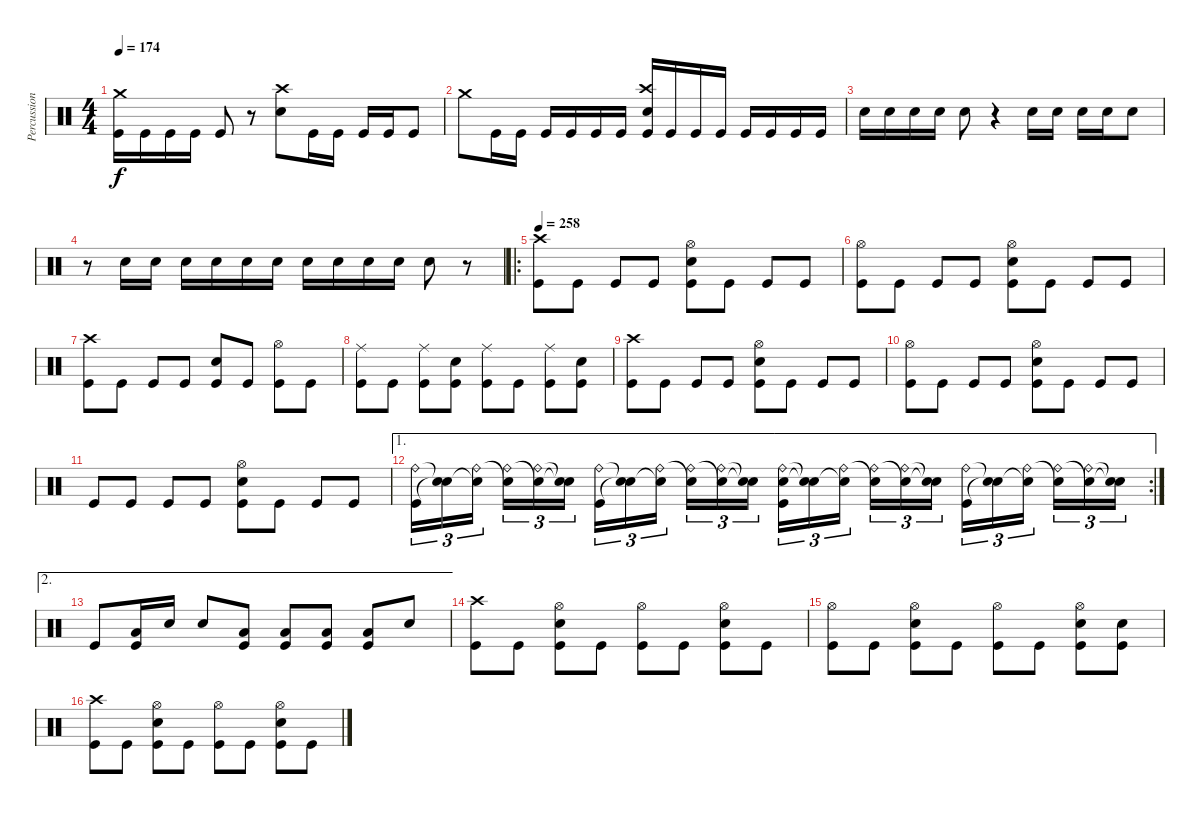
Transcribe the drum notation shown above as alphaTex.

\track ("Percussion" "Percussion") {instrument percussion}
\staff {score}
\articulation defaults
\ts (4 4)
\tempo 174
\clef neutral
\ks c
("Crash medium (hit)" "Kick (hit)").16{dy f} "Kick (hit)".16 "Kick (hit)".16 "Kick (hit)".16 "Kick (hit)".8 r.8 ("Crash high (hit)" "Snare (hit) 2").8 "Kick (hit)".16 "Kick (hit)".16 "Kick (hit)".16 "Kick (hit)".16 "Kick (hit)".8 |
"Crash medium (hit)".8 "Kick (hit)".16 "Kick (hit)".16 "Kick (hit)".16 "Kick (hit)".16 "Kick (hit)".16 "Kick (hit)".16 ("Crash high (hit)" "Snare (hit) 2" "Kick (hit)").16 "Kick (hit)".16 "Kick (hit)".16 "Kick (hit)".16 "Kick (hit)".16 "Kick (hit)".16 "Kick (hit)".16 "Kick (hit)".16 |
"Snare (hit) 2".16 "Snare (hit) 2".16 "Snare (hit) 2".16 "Snare (hit) 2".16 "Snare (hit) 2".8 r.4 "Snare (hit) 2".16 "Snare (hit) 2".16 "Snare (hit) 2".16 "Snare (hit) 2".16 "Snare (hit) 2".8 |
r.8 "Snare (hit) 2".16 "Snare (hit) 2".16 "Snare (hit) 2".16 "Snare (hit) 2".16 "Snare (hit) 2".16 "Snare (hit) 2".16 "Snare (hit) 2".16 "Snare (hit) 2".16 "Snare (hit) 2".16 "Snare (hit) 2".16 "Snare (hit) 2".8 r.8 |
\ro
\tempo 258
("Crash high (hit)" "Kick (hit)").8 "Kick (hit)".8 "Kick (hit)".8 "Kick (hit)".8 ("Snare (hit) 2" "Hi-Hat (open)" "Kick (hit)").8 "Kick (hit)".8 "Kick (hit)".8 "Kick (hit)".8 |
("Hi-Hat (open)" "Kick (hit)").8 "Kick (hit)".8 "Kick (hit)".8 "Kick (hit)".8 ("Snare (hit) 2" "Hi-Hat (open)" "Kick (hit)").8 "Kick (hit)".8 "Kick (hit)".8 "Kick (hit)".8 |
("Crash high (hit)" "Kick (hit)").8 "Kick (hit)".8 "Kick (hit)".8 "Kick (hit)".8 ("Snare (hit) 2" "Kick (hit)").8 "Kick (hit)".8 ("Hi-Hat (open)" "Kick (hit)").8 "Kick (hit)".8 |
("Ride (middle)" "Kick (hit)").8 "Kick (hit)".8 ("Ride (middle)" "Kick (hit)").8 ("Snare (hit) 2" "Kick (hit)").8 ("Ride (middle)" "Kick (hit)").8 "Kick (hit)".8 ("Ride (middle)" "Kick (hit)").8 ("Snare (hit) 2" "Kick (hit)").8 |
("Crash high (hit)" "Kick (hit)").8 "Kick (hit)".8 "Kick (hit)".8 "Kick (hit)".8 ("Snare (hit) 2" "Hi-Hat (open)" "Kick (hit)").8 "Kick (hit)".8 "Kick (hit)".8 "Kick (hit)".8 |
("Hi-Hat (open)" "Kick (hit)").8 "Kick (hit)".8 "Kick (hit)".8 "Kick (hit)".8 ("Snare (hit) 2" "Hi-Hat (open)" "Kick (hit)").8 "Kick (hit)".8 "Kick (hit)".8 "Kick (hit)".8 |
"Kick (hit)".8 "Kick (hit)".8 "Kick (hit)".8 "Kick (hit)".8 ("Snare (hit) 2" "Hi-Hat (open)" "Kick (hit)").8 "Kick (hit)".8 "Kick (hit)".8 "Kick (hit)".8 |
\ae 1
\rc 2
("Ride (bell)" "Kick (hit)").16{tu (3 2)} ("Snare (hit)"{t} "Snare (hit)"{t}).16{tu (3 2)} ("Ride (bell)" "Snare (hit)"{t}).16{tu (3 2)} ("Snare (hit)"{t} "Ride (bell)").16{tu (3 2)} ("Ride (bell)" "Snare (hit)"{t}).16{tu (3 2)} ("Snare (hit)"{t} "Snare (hit)"{t}).16{tu (3 2)} ("Ride (bell)" "Kick (hit)").16{tu (3 2)} ("Snare (hit)"{t} "Snare (hit)"{t}).16{tu (3 2)} ("Ride (bell)" "Snare (hit)"{t}).16{tu (3 2)} ("Snare (hit)"{t} "Ride (bell)").16{tu (3 2)} ("Ride (bell)" "Snare (hit)"{t}).16{tu (3 2)} ("Snare (hit)"{t} "Snare (hit)"{t}).16{tu (3 2)} ("Ride (bell)" "Snare (hit) 2" "Kick (hit)").16{tu (3 2)} ("Snare (hit)"{t} "Snare (hit)"{t}).16{tu (3 2)} ("Ride (bell)" "Snare (hit)"{t}).16{tu (3 2)} ("Snare (hit)"{t} "Ride (bell)").16{tu (3 2)} ("Ride (bell)" "Snare (hit)"{t}).16{tu (3 2)} ("Snare (hit)"{t} "Snare (hit)"{t}).16{tu (3 2)} ("Ride (bell)" "Kick (hit)").16{tu (3 2)} ("Snare (hit)"{t} "Snare (hit)"{t}).16{tu (3 2)} ("Ride (bell)" "Snare (hit)"{t}).16{tu (3 2)} ("Snare (hit)"{t} "Ride (bell)").16{tu (3 2)} ("Ride (bell)" "Snare (hit)"{t}).16{tu (3 2)} ("Snare (hit)"{t} "Snare (hit)"{t}).16{tu (3 2)} |
\ae 2 "Kick (hit)".8
("Low Tom (hit)" "Kick (hit)").16 "Snare (hit) 2".16 "Snare (hit) 2".8 ("Low Tom (hit)" "Kick (hit)").8 ("Low Tom (hit)" "Kick (hit)").8 ("Low Tom (hit)" "Kick (hit)").8 ("Low Tom (hit)" "Kick (hit)").8 "Snare (hit) 2".8 |
("Crash high (hit)" "Kick (hit)").8 "Kick (hit)".8 ("Snare (hit) 2" "Hi-Hat (open)" "Kick (hit)").8 "Kick (hit)".8 ("Hi-Hat (open)" "Kick (hit)").8 "Kick (hit)".8 ("Snare (hit) 2" "Hi-Hat (open)" "Kick (hit)").8 "Kick (hit)".8 |
("Hi-Hat (open)" "Kick (hit)").8 "Kick (hit)".8 ("Snare (hit) 2" "Hi-Hat (open)" "Kick (hit)").8 "Kick (hit)".8 ("Hi-Hat (open)" "Kick (hit)").8 "Kick (hit)".8 ("Snare (hit) 2" "Hi-Hat (open)" "Kick (hit)").8 ("Snare (hit) 2" "Kick (hit)").8 |
("Crash high (hit)" "Kick (hit)").8 "Kick (hit)".8 ("Snare (hit) 2" "Hi-Hat (open)" "Kick (hit)").8 "Kick (hit)".8 ("Hi-Hat (open)" "Kick (hit)").8 "Kick (hit)".8 ("Snare (hit) 2" "Hi-Hat (open)" "Kick (hit)").8 "Kick (hit)".8
